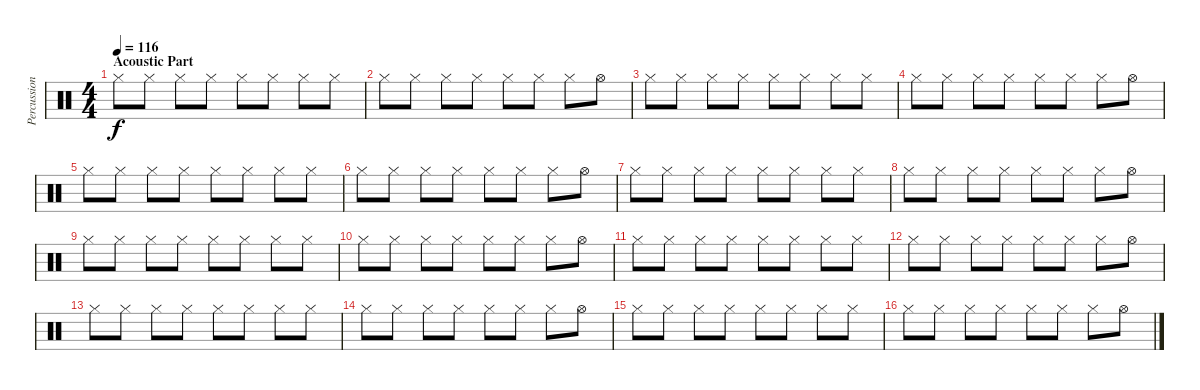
\track ("Percussion" "Percussion") {instrument percussion}
\staff {score}
\articulation defaults
\ts (4 4)
\section ("" "Acoustic Part")
\tempo 116
\clef neutral
\ks c "Hi-Hat (closed)".8{dy f} "Hi-Hat (closed)".8 "Hi-Hat (closed)".8 "Hi-Hat (closed)".8 "Hi-Hat (closed)".8 "Hi-Hat (closed)".8 "Hi-Hat (closed)".8 "Hi-Hat (closed)".8
|
"Hi-Hat (closed)".8 "Hi-Hat (closed)".8 "Hi-Hat (closed)".8 "Hi-Hat (closed)".8 "Hi-Hat (closed)".8 "Hi-Hat (closed)".8 "Hi-Hat (closed)".8 "Hi-Hat (open)".8 |
"Hi-Hat (closed)".8 "Hi-Hat (closed)".8 "Hi-Hat (closed)".8 "Hi-Hat (closed)".8 "Hi-Hat (closed)".8 "Hi-Hat (closed)".8 "Hi-Hat (closed)".8 "Hi-Hat (closed)".8 |
"Hi-Hat (closed)".8 "Hi-Hat (closed)".8 "Hi-Hat (closed)".8 "Hi-Hat (closed)".8 "Hi-Hat (closed)".8 "Hi-Hat (closed)".8 "Hi-Hat (closed)".8 "Hi-Hat (open)".8 |
"Hi-Hat (closed)".8 "Hi-Hat (closed)".8 "Hi-Hat (closed)".8 "Hi-Hat (closed)".8 "Hi-Hat (closed)".8 "Hi-Hat (closed)".8 "Hi-Hat (closed)".8 "Hi-Hat (closed)".8 |
"Hi-Hat (closed)".8 "Hi-Hat (closed)".8 "Hi-Hat (closed)".8 "Hi-Hat (closed)".8 "Hi-Hat (closed)".8 "Hi-Hat (closed)".8 "Hi-Hat (closed)".8 "Hi-Hat (open)".8 |
"Hi-Hat (closed)".8 "Hi-Hat (closed)".8 "Hi-Hat (closed)".8 "Hi-Hat (closed)".8 "Hi-Hat (closed)".8 "Hi-Hat (closed)".8 "Hi-Hat (closed)".8 "Hi-Hat (closed)".8 |
"Hi-Hat (closed)".8 "Hi-Hat (closed)".8 "Hi-Hat (closed)".8 "Hi-Hat (closed)".8 "Hi-Hat (closed)".8 "Hi-Hat (closed)".8 "Hi-Hat (closed)".8 "Hi-Hat (open)".8 |
"Hi-Hat (closed)".8 "Hi-Hat (closed)".8 "Hi-Hat (closed)".8 "Hi-Hat (closed)".8 "Hi-Hat (closed)".8 "Hi-Hat (closed)".8 "Hi-Hat (closed)".8 "Hi-Hat (closed)".8 |
"Hi-Hat (closed)".8 "Hi-Hat (closed)".8 "Hi-Hat (closed)".8 "Hi-Hat (closed)".8 "Hi-Hat (closed)".8 "Hi-Hat (closed)".8 "Hi-Hat (closed)".8 "Hi-Hat (open)".8 |
"Hi-Hat (closed)".8 "Hi-Hat (closed)".8 "Hi-Hat (closed)".8 "Hi-Hat (closed)".8 "Hi-Hat (closed)".8 "Hi-Hat (closed)".8 "Hi-Hat (closed)".8 "Hi-Hat (closed)".8 |
"Hi-Hat (closed)".8 "Hi-Hat (closed)".8 "Hi-Hat (closed)".8 "Hi-Hat (closed)".8 "Hi-Hat (closed)".8 "Hi-Hat (closed)".8 "Hi-Hat (closed)".8 "Hi-Hat (open)".8 |
"Hi-Hat (closed)".8 "Hi-Hat (closed)".8 "Hi-Hat (closed)".8 "Hi-Hat (closed)".8 "Hi-Hat (closed)".8 "Hi-Hat (closed)".8 "Hi-Hat (closed)".8 "Hi-Hat (closed)".8 |
"Hi-Hat (closed)".8 "Hi-Hat (closed)".8 "Hi-Hat (closed)".8 "Hi-Hat (closed)".8 "Hi-Hat (closed)".8 "Hi-Hat (closed)".8 "Hi-Hat (closed)".8 "Hi-Hat (open)".8 |
"Hi-Hat (closed)".8 "Hi-Hat (closed)".8 "Hi-Hat (closed)".8 "Hi-Hat (closed)".8 "Hi-Hat (closed)".8 "Hi-Hat (closed)".8 "Hi-Hat (closed)".8 "Hi-Hat (closed)".8 |
"Hi-Hat (closed)".8 "Hi-Hat (closed)".8 "Hi-Hat (closed)".8 "Hi-Hat (closed)".8 "Hi-Hat (closed)".8 "Hi-Hat (closed)".8 "Hi-Hat (closed)".8 "Hi-Hat (open)".8
